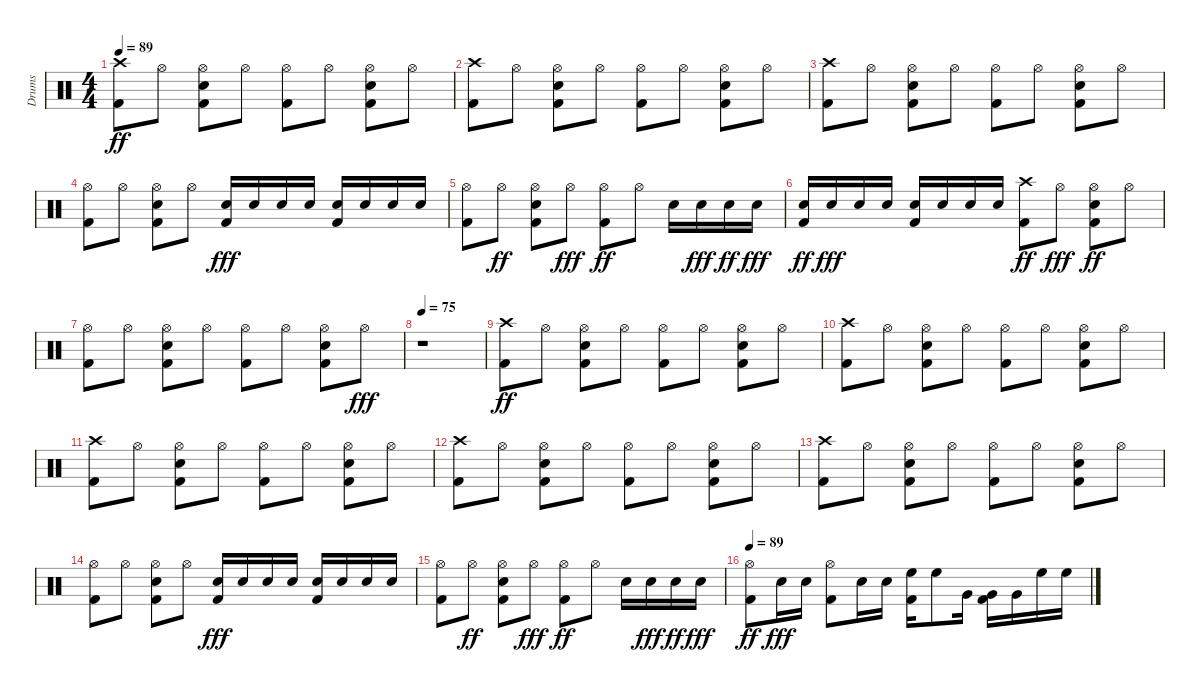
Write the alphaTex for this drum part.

\track ("Drums" "Drums") {instrument percussion}
\staff {score}
\articulation defaults
\ts (4 4)
\tempo 89
\clef neutral
\ks c
("Kick (hit) 2" "Crash high (hit)").8{dy ff volume 11} "Hi-Hat (open)".8{volume 10} ("Kick (hit) 2" "Hi-Hat (open)" "Snare (hit) 2").8{volume 10} "Hi-Hat (open)".8{volume 10} ("Kick (hit) 2" "Hi-Hat (open)").8{volume 10} "Hi-Hat (open)".8{volume 10} ("Kick (hit) 2" "Snare (hit) 2" "Hi-Hat (open)").8{volume 10} "Hi-Hat (open)".8{volume 9} |
("Kick (hit) 2" "Crash high (hit)").8{volume 9} "Hi-Hat (open)".8{volume 9} ("Kick (hit) 2" "Hi-Hat (open)" "Snare (hit) 2").8{volume 9} "Hi-Hat (open)".8{volume 9} ("Kick (hit) 2" "Hi-Hat (open)").8{volume 8} "Hi-Hat (open)".8{volume 8} ("Kick (hit) 2" "Snare (hit) 2" "Hi-Hat (open)").8{volume 8} "Hi-Hat (open)".8{volume 8} |
("Kick (hit) 2" "Crash high (hit)").8{volume 8} "Hi-Hat (open)".8{volume 8} ("Kick (hit) 2" "Hi-Hat (open)" "Snare (hit) 2").8{volume 7} "Hi-Hat (open)".8{volume 7} ("Kick (hit) 2" "Hi-Hat (open)").8{volume 7} "Hi-Hat (open)".8{volume 7} ("Kick (hit) 2" "Snare (hit) 2" "Hi-Hat (open)").8{volume 6} "Hi-Hat (open)".8{volume 6} |
("Kick (hit) 2" "Hi-Hat (open)").8{volume 6} "Hi-Hat (open)".8{volume 6} ("Kick (hit) 2" "Snare (hit) 2" "Hi-Hat (open)").8{volume 6} "Hi-Hat (open)".8{volume 6} ("Kick (hit) 2" "Snare (hit) 2").16{dy fff volume 5} "Snare (hit) 2".16{volume 5} "Snare (hit) 2".16 "Snare (hit) 2".16{volume 5} ("Kick (hit) 2" "Snare (hit) 2").16{volume 5} "Snare (hit) 2".16{volume 5} "Snare (hit) 2".16 "Snare (hit) 2".16{volume 5} |
("Kick (hit) 2" "Hi-Hat (open)").8{volume 5} "Hi-Hat (open)".8{dy ff volume 4} ("Kick (hit) 2" "Hi-Hat (open)" "Snare (hit) 2").8{volume 4} "Hi-Hat (open)".8{dy fff volume 4} ("Kick (hit) 2" "Hi-Hat (open)").8{dy ff volume 4} "Hi-Hat (open)".8{volume 4} "Snare (hit) 2".16{volume 4} "Snare (hit) 2".16{dy fff volume 3} "Snare (hit) 2".16{dy ff volume 3} "Snare (hit) 2".16{dy fff} |
("Kick (hit) 2" "Snare (hit) 2").16{dy ff volume 3} "Snare (hit) 2".16{dy fff volume 3} "Snare (hit) 2".16{volume 3} "Snare (hit) 2".16 ("Kick (hit) 2" "Snare (hit) 2").16{volume 3} "Snare (hit) 2".16{volume 3} "Snare (hit) 2".16{volume 2} "Snare (hit) 2".16 ("Kick (hit) 2" "Crash high (hit)").8{dy ff volume 2} "Hi-Hat (open)".8{dy fff volume 2} ("Kick (hit) 2" "Hi-Hat (open)" "Snare (hit) 2").8{dy ff volume 2} "Hi-Hat (open)".8{volume 2} |
("Kick (hit) 2" "Hi-Hat (open)").8{volume 2} "Hi-Hat (open)".8{volume 1} ("Kick (hit) 2" "Snare (hit) 2" "Hi-Hat (open)").8{volume 1} "Hi-Hat (open)".8{volume 1} ("Kick (hit) 2" "Hi-Hat (open)").8{volume 1} "Hi-Hat (open)".8{volume 1} ("Kick (hit) 2" "Hi-Hat (open)" "Snare (hit) 2").8{volume 0} "Hi-Hat (open)".8{dy fff volume 0} |
\tempo 75
r.1 |
("Kick (hit) 2" "Crash high (hit)").8{dy ff volume 2} "Hi-Hat (open)".8{volume 2} ("Kick (hit) 2" "Hi-Hat (open)" "Snare (hit) 2").8{volume 2} "Hi-Hat (open)".8{volume 2} ("Kick (hit) 2" "Hi-Hat (open)").8{volume 2} "Hi-Hat (open)".8{volume 2} ("Kick (hit) 2" "Snare (hit) 2" "Hi-Hat (open)").8{volume 3} "Hi-Hat (open)".8{volume 3} |
("Kick (hit) 2" "Crash high (hit)").8{volume 3} "Hi-Hat (open)".8{volume 3} ("Kick (hit) 2" "Hi-Hat (open)" "Snare (hit) 2").8{volume 3} "Hi-Hat (open)".8{volume 4} ("Kick (hit) 2" "Hi-Hat (open)").8{volume 4} "Hi-Hat (open)".8{volume 4} ("Kick (hit) 2" "Snare (hit) 2" "Hi-Hat (open)").8{volume 4} "Hi-Hat (open)".8{volume 4} |
("Kick (hit) 2" "Crash high (hit)").8{volume 4} "Hi-Hat (open)".8{volume 5} ("Kick (hit) 2" "Hi-Hat (open)" "Snare (hit) 2").8{volume 5} "Hi-Hat (open)".8{volume 5} ("Kick (hit) 2" "Hi-Hat (open)").8{volume 5} "Hi-Hat (open)".8{volume 6} ("Kick (hit) 2" "Snare (hit) 2" "Hi-Hat (open)").8{volume 6} "Hi-Hat (open)".8{volume 6} |
("Kick (hit) 2" "Crash high (hit)").8{volume 6} "Hi-Hat (open)".8{volume 6} ("Kick (hit) 2" "Hi-Hat (open)" "Snare (hit) 2").8{volume 6} "Hi-Hat (open)".8{volume 7} ("Kick (hit) 2" "Hi-Hat (open)").8{volume 7} "Hi-Hat (open)".8{volume 7} ("Kick (hit) 2" "Snare (hit) 2" "Hi-Hat (open)").8{volume 7} "Hi-Hat (open)".8{volume 7} |
("Kick (hit) 2" "Crash high (hit)").8{volume 8} "Hi-Hat (open)".8{volume 8} ("Kick (hit) 2" "Hi-Hat (open)" "Snare (hit) 2").8{volume 8} "Hi-Hat (open)".8{volume 8} ("Kick (hit) 2" "Hi-Hat (open)").8{volume 8} "Hi-Hat (open)".8{volume 8} ("Kick (hit) 2" "Snare (hit) 2" "Hi-Hat (open)").8{volume 9} "Hi-Hat (open)".8{volume 9} |
("Kick (hit) 2" "Hi-Hat (open)").8{volume 9} "Hi-Hat (open)".8{volume 9} ("Kick (hit) 2" "Snare (hit) 2" "Hi-Hat (open)").8{volume 10} "Hi-Hat (open)".8{volume 10} ("Kick (hit) 2" "Snare (hit) 2").16{dy fff volume 10} "Snare (hit) 2".16{volume 10} "Snare (hit) 2".16{volume 10} "Snare (hit) 2".16 ("Kick (hit) 2" "Snare (hit) 2").16{volume 10} "Snare (hit) 2".16{volume 10} "Snare (hit) 2".16{volume 10} "Snare (hit) 2".16 |
("Kick (hit) 2" "Hi-Hat (open)").8{volume 11} "Hi-Hat (open)".8{dy ff volume 11} ("Kick (hit) 2" "Hi-Hat (open)" "Snare (hit) 2").8{volume 11} "Hi-Hat (open)".8{dy fff volume 11} ("Kick (hit) 2" "Hi-Hat (open)").8{dy ff volume 11} "Hi-Hat (open)".8{volume 12} "Snare (hit) 2".16{volume 12} "Snare (hit) 2".16{dy fff volume 12} "Snare (hit) 2".16{dy ff volume 12} "Snare (hit) 2".16{dy fff volume 12} |
\tempo 89
("Kick (hit) 2" "Hi-Hat (open)").8{dy ff} "Snare (hit) 2".16{dy fff volume 12} "Snare (hit) 2".16{volume 12} ("Kick (hit) 2" "Hi-Hat (open)").8 "Snare (hit) 2".16{volume 13} "Snare (hit) 2".16{volume 13} ("Kick (hit) 2" "High Floor Tom (hit)").16 "High Floor Tom (hit)".8{volume 13} "Very Low Tom (hit)".16{volume 13} ("Kick (hit) 2" "Very Low Tom (hit)").16 "Very Low Tom (hit)".16{volume 13} "High Floor Tom (hit)".16{volume 14} "High Floor Tom (hit)".16{volume 14}
